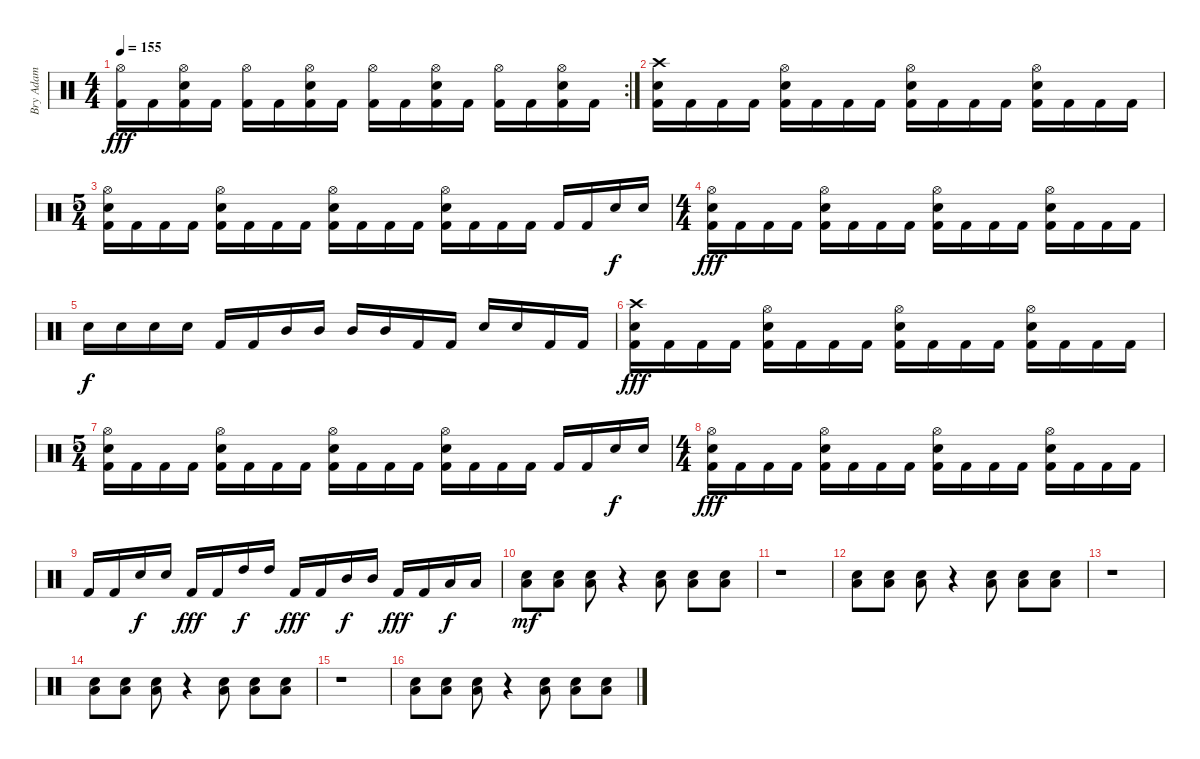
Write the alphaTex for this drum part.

\track ("Bry Adam " "Bry Adam ") {instrument percussion}
\staff {score}
\articulation defaults
\rc 2
\ts (4 4)
\tempo 155
\clef neutral
\ks c
("Hi-Hat (open)" "Kick (hit) 2").16{dy fff} "Kick (hit) 2".16 ("Hi-Hat (open)" "Snare (hit) 2" "Kick (hit) 2").16 "Kick (hit) 2".16 ("Hi-Hat (open)" "Kick (hit) 2").16 "Kick (hit) 2".16 ("Hi-Hat (open)" "Snare (hit) 2" "Kick (hit) 2").16 "Kick (hit) 2".16 ("Hi-Hat (open)" "Kick (hit) 2").16 "Kick (hit) 2".16 ("Hi-Hat (open)" "Snare (hit) 2" "Kick (hit) 2").16 "Kick (hit) 2".16 ("Hi-Hat (open)" "Kick (hit) 2").16 "Kick (hit) 2".16 ("Hi-Hat (open)" "Snare (hit) 2" "Kick (hit) 2").16 "Kick (hit) 2".16 |
("Crash high (hit)" "Snare (hit) 2" "Kick (hit) 2").16 "Kick (hit) 2".16 "Kick (hit) 2".16 "Kick (hit) 2".16 ("Hi-Hat (open)" "Snare (hit) 2" "Kick (hit) 2").16 "Kick (hit) 2".16 "Kick (hit) 2".16 "Kick (hit) 2".16 ("Hi-Hat (open)" "Snare (hit) 2" "Kick (hit) 2").16 "Kick (hit) 2".16 "Kick (hit) 2".16 "Kick (hit) 2".16 ("Hi-Hat (open)" "Snare (hit) 2" "Kick (hit) 2").16 "Kick (hit) 2".16 "Kick (hit) 2".16 "Kick (hit) 2".16 |
\ts (5 4)
("Hi-Hat (open)" "Snare (hit) 2" "Kick (hit) 2").16 "Kick (hit) 2".16 "Kick (hit) 2".16 "Kick (hit) 2".16 ("Hi-Hat (open)" "Snare (hit) 2" "Kick (hit) 2").16 "Kick (hit) 2".16 "Kick (hit) 2".16 "Kick (hit) 2".16 ("Hi-Hat (open)" "Snare (hit) 2" "Kick (hit) 2").16 "Kick (hit) 2".16 "Kick (hit) 2".16 "Kick (hit) 2".16 ("Hi-Hat (open)" "Snare (hit) 2" "Kick (hit) 2").16 "Kick (hit) 2".16 "Kick (hit) 2".16 "Kick (hit) 2".16 "Kick (hit) 2".16 "Kick (hit) 2".16 "Snare (hit) 2".16{dy f} "Snare (hit) 2".16 |
\ts (4 4)
("Hi-Hat (open)" "Snare (hit) 2" "Kick (hit) 2").16{dy fff} "Kick (hit) 2".16 "Kick (hit) 2".16 "Kick (hit) 2".16 ("Hi-Hat (open)" "Snare (hit) 2" "Kick (hit) 2").16 "Kick (hit) 2".16 "Kick (hit) 2".16 "Kick (hit) 2".16 ("Hi-Hat (open)" "Snare (hit) 2" "Kick (hit) 2").16 "Kick (hit) 2".16 "Kick (hit) 2".16 "Kick (hit) 2".16 ("Hi-Hat (open)" "Snare (hit) 2" "Kick (hit) 2").16 "Kick (hit) 2".16 "Kick (hit) 2".16 "Kick (hit) 2".16 |
"Snare (hit) 2".16{dy f} "Snare (hit) 2".16 "Snare (hit) 2".16 "Snare (hit) 2".16 "Kick (hit) 2".16 "Kick (hit) 2".16 "Mid Tom (hit)".16 "Mid Tom (hit)".16 "Mid Tom (hit)".16 "Mid Tom (hit)".16 "Kick (hit) 2".16 "Kick (hit) 2".16 "Snare (hit) 2".16 "Snare (hit) 2".16 "Kick (hit) 2".16 "Kick (hit) 2".16 |
("Crash high (hit)" "Snare (hit) 2" "Kick (hit) 2").16{dy fff} "Kick (hit) 2".16 "Kick (hit) 2".16 "Kick (hit) 2".16 ("Hi-Hat (open)" "Snare (hit) 2" "Kick (hit) 2").16 "Kick (hit) 2".16 "Kick (hit) 2".16 "Kick (hit) 2".16 ("Hi-Hat (open)" "Snare (hit) 2" "Kick (hit) 2").16 "Kick (hit) 2".16 "Kick (hit) 2".16 "Kick (hit) 2".16 ("Hi-Hat (open)" "Snare (hit) 2" "Kick (hit) 2").16 "Kick (hit) 2".16 "Kick (hit) 2".16 "Kick (hit) 2".16 |
\ts (5 4)
("Hi-Hat (open)" "Snare (hit) 2" "Kick (hit) 2").16 "Kick (hit) 2".16 "Kick (hit) 2".16 "Kick (hit) 2".16 ("Hi-Hat (open)" "Snare (hit) 2" "Kick (hit) 2").16 "Kick (hit) 2".16 "Kick (hit) 2".16 "Kick (hit) 2".16 ("Hi-Hat (open)" "Snare (hit) 2" "Kick (hit) 2").16 "Kick (hit) 2".16 "Kick (hit) 2".16 "Kick (hit) 2".16 ("Hi-Hat (open)" "Snare (hit) 2" "Kick (hit) 2").16 "Kick (hit) 2".16 "Kick (hit) 2".16 "Kick (hit) 2".16 "Kick (hit) 2".16 "Kick (hit) 2".16 "Snare (hit) 2".16{dy f} "Snare (hit) 2".16 |
\ts (4 4)
("Hi-Hat (open)" "Snare (hit) 2" "Kick (hit) 2").16{dy fff} "Kick (hit) 2".16 "Kick (hit) 2".16 "Kick (hit) 2".16 ("Hi-Hat (open)" "Snare (hit) 2" "Kick (hit) 2").16 "Kick (hit) 2".16 "Kick (hit) 2".16 "Kick (hit) 2".16 ("Hi-Hat (open)" "Snare (hit) 2" "Kick (hit) 2").16 "Kick (hit) 2".16 "Kick (hit) 2".16 "Kick (hit) 2".16 ("Hi-Hat (open)" "Snare (hit) 2" "Kick (hit) 2").16 "Kick (hit) 2".16 "Kick (hit) 2".16 "Kick (hit) 2".16 |
"Kick (hit) 2".16 "Kick (hit) 2".16 "Snare (hit) 2".16{dy f} "Snare (hit) 2".16 "Kick (hit) 2".16{dy fff} "Kick (hit) 2".16 "High Tom (hit)".16{dy f} "High Tom (hit)".16 "Kick (hit) 2".16{dy fff} "Kick (hit) 2".16 "Mid Tom (hit)".16{dy f} "Mid Tom (hit)".16 "Kick (hit) 2".16{dy fff} "Kick (hit) 2".16 "Low Tom (hit)".16{dy f} "Low Tom (hit)".16 |
("Low Tom (hit)" "Snare (hit) 2").8{dy mf} ("Low Tom (hit)" "Snare (hit) 2").8 ("Low Tom (hit)" "Snare (hit) 2").8 r.4 ("Low Tom (hit)" "Snare (hit) 2").8 ("Low Tom (hit)" "Snare (hit) 2").8 ("Low Tom (hit)" "Snare (hit) 2").8 |
r.1 |
("Low Tom (hit)" "Snare (hit) 2").8 ("Low Tom (hit)" "Snare (hit) 2").8 ("Low Tom (hit)" "Snare (hit) 2").8 r.4 ("Low Tom (hit)" "Snare (hit) 2").8 ("Low Tom (hit)" "Snare (hit) 2").8 ("Low Tom (hit)" "Snare (hit) 2").8 |
r.1 |
("Low Tom (hit)" "Snare (hit) 2").8 ("Low Tom (hit)" "Snare (hit) 2").8 ("Low Tom (hit)" "Snare (hit) 2").8 r.4 ("Low Tom (hit)" "Snare (hit) 2").8 ("Low Tom (hit)" "Snare (hit) 2").8 ("Low Tom (hit)" "Snare (hit) 2").8 |
r.1 |
("Low Tom (hit)" "Snare (hit) 2").8 ("Low Tom (hit)" "Snare (hit) 2").8 ("Low Tom (hit)" "Snare (hit) 2").8 r.4 ("Low Tom (hit)" "Snare (hit) 2").8 ("Low Tom (hit)" "Snare (hit) 2").8 ("Low Tom (hit)" "Snare (hit) 2").8
